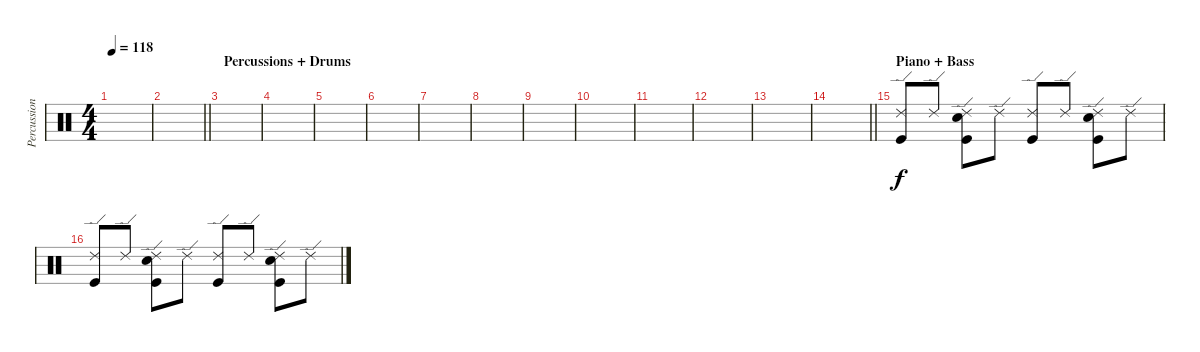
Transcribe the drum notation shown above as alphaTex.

\track ("Percussion (RSE)" "Percussion") {instrument percussion}
\staff {score}
\articulation defaults
\ts (4 4)
\tempo 118
\clef neutral
\ks c
|
\barLineRight lightlight
|
\section ("" "Percussions + Drums")
|
|
|
|
|
|
|
|
|
|
|
\barLineRight lightlight
|
\section ("" "Piano + Bass")
("Ride (edge) 2" "Kick (hit)").8{volume 10} "Ride (edge) 2".8 ("Ride (edge) 2" "Snare (hit) 2" "Kick (hit)").8 "Ride (edge) 2".8 ("Ride (edge) 2" "Kick (hit)").8 "Ride (edge) 2".8 ("Ride (edge) 2" "Snare (hit) 2" "Kick (hit)").8 "Ride (edge) 2".8 |
("Ride (edge) 2" "Kick (hit)").8 "Ride (edge) 2".8 ("Ride (edge) 2" "Snare (hit) 2" "Kick (hit)").8 "Ride (edge) 2".8 ("Ride (edge) 2" "Kick (hit)").8 "Ride (edge) 2".8 ("Ride (edge) 2" "Snare (hit) 2" "Kick (hit)").8 "Ride (edge) 2".8
